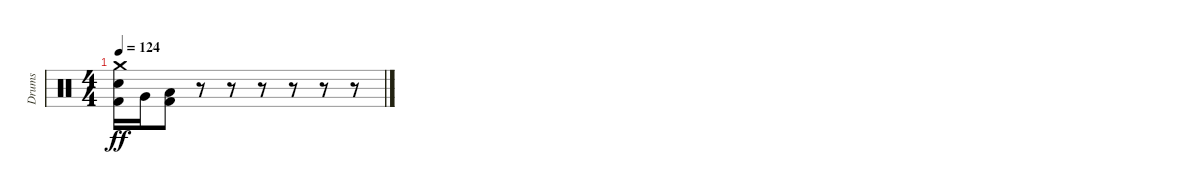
\track ("Drums" "Drums") {instrument percussion}
\staff {score}
\articulation defaults
\ts (4 4)
\tempo 124
\clef neutral
\ks c
("Crash medium (hit)" "Electric Snare (hit)" "Kick (hit) 2").16{dy ff} "Very Low Tom (hit)".16 ("Low Floor Tom (hit)" "Kick (hit) 2").8 r.8 r.8 r.8 r.8 r.8 r.8
